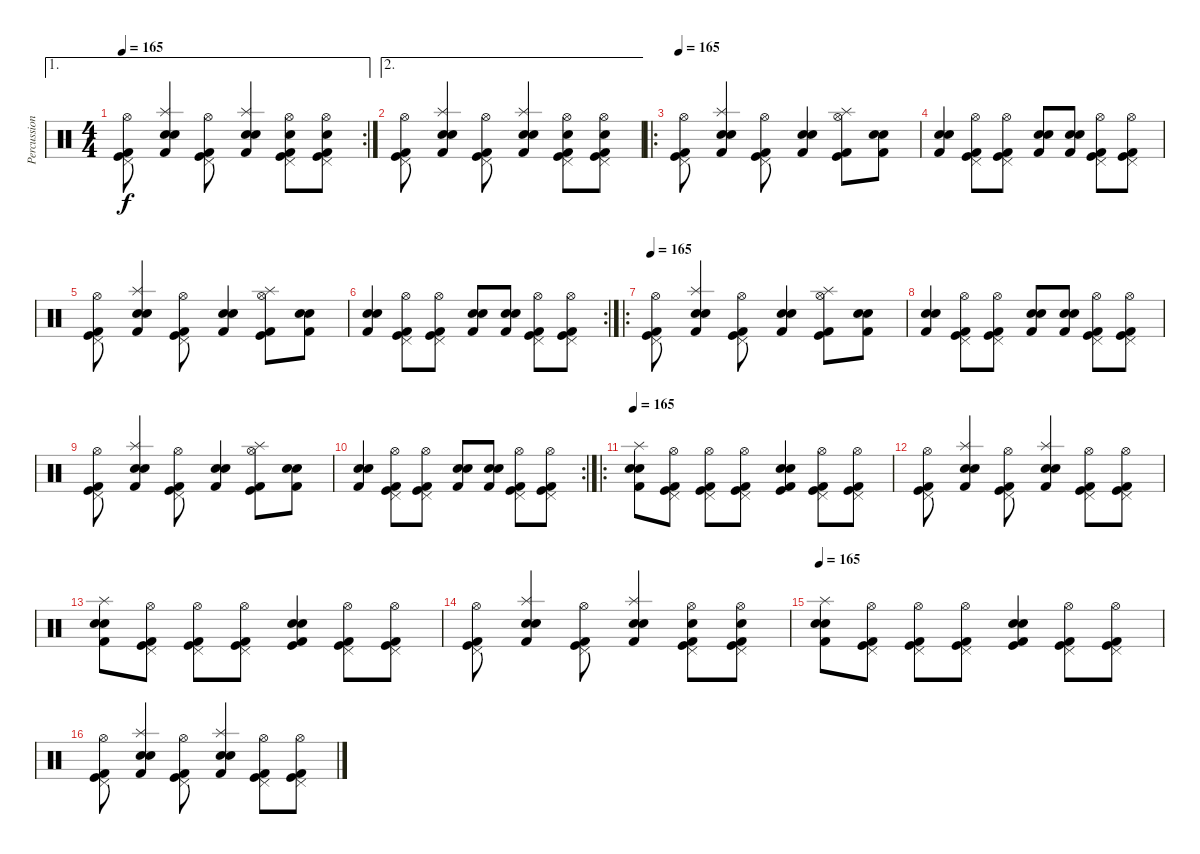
\track ("Percussions" "Percussion") {instrument percussion}
\staff {score}
\articulation defaults
\ae 1
\rc 2
\ts (4 4)
\tempo 165
\clef neutral
\ks c
("Hi-Hat (open)" "Pedal Hi-Hat (hit)" "Kick (hit) 2" "Kick (hit)").8{dy f} ("Kick (hit) 2" "Splash (hit)" "Snare (hit) 2" "Electric Snare (hit)").4 ("Hi-Hat (open)" "Pedal Hi-Hat (hit)" "Kick (hit) 2" "Kick (hit)").8 ("Kick (hit) 2" "Splash (hit)" "Snare (hit) 2" "Electric Snare (hit)").4 ("Hi-Hat (open)" "Pedal Hi-Hat (hit)" "Kick (hit) 2" "Kick (hit)" "Electric Snare (hit)").8 ("Hi-Hat (open)" "Pedal Hi-Hat (hit)" "Kick (hit) 2" "Kick (hit)" "Electric Snare (hit)").8 |
\ae 2
("Hi-Hat (open)" "Pedal Hi-Hat (hit)" "Kick (hit) 2" "Kick (hit)").8 ("Kick (hit) 2" "Splash (hit)" "Snare (hit) 2" "Electric Snare (hit)").4 ("Hi-Hat (open)" "Pedal Hi-Hat (hit)" "Kick (hit) 2" "Kick (hit)").8 ("Kick (hit) 2" "Splash (hit)" "Snare (hit) 2" "Electric Snare (hit)").4 ("Hi-Hat (open)" "Pedal Hi-Hat (hit)" "Kick (hit) 2" "Kick (hit)" "Electric Snare (hit)").8 ("Hi-Hat (open)" "Pedal Hi-Hat (hit)" "Kick (hit) 2" "Kick (hit)" "Electric Snare (hit)").8 |
\ro
\tempo 165
("Hi-Hat (open)" "Pedal Hi-Hat (hit)" "Kick (hit) 2" "Kick (hit)").8 ("Kick (hit) 2" "Splash (hit)" "Snare (hit) 2" "Electric Snare (hit)").4 ("Hi-Hat (open)" "Pedal Hi-Hat (hit)" "Kick (hit) 2" "Kick (hit)").8 ("Kick (hit) 2" "Snare (hit) 2" "Electric Snare (hit)").4 ("Hi-Hat (open)" "Splash (hit)" "Kick (hit) 2" "Kick (hit)").8 ("Kick (hit) 2" "Snare (hit) 2" "Electric Snare (hit)").8 |
("Kick (hit) 2" "Snare (hit) 2" "Electric Snare (hit)").4 ("Kick (hit)" "Hi-Hat (open)" "Pedal Hi-Hat (hit)" "Kick (hit) 2").8 ("Kick (hit)" "Hi-Hat (open)" "Pedal Hi-Hat (hit)" "Kick (hit) 2").8 ("Kick (hit) 2" "Snare (hit) 2" "Electric Snare (hit)").8 ("Kick (hit) 2" "Snare (hit) 2" "Electric Snare (hit)").8 ("Kick (hit)" "Hi-Hat (open)" "Pedal Hi-Hat (hit)" "Kick (hit) 2").8 ("Kick (hit)" "Hi-Hat (open)" "Pedal Hi-Hat (hit)" "Kick (hit) 2").8 |
("Hi-Hat (open)" "Pedal Hi-Hat (hit)" "Kick (hit) 2" "Kick (hit)").8 ("Kick (hit) 2" "Splash (hit)" "Snare (hit) 2" "Electric Snare (hit)").4 ("Hi-Hat (open)" "Pedal Hi-Hat (hit)" "Kick (hit) 2" "Kick (hit)").8 ("Kick (hit) 2" "Snare (hit) 2" "Electric Snare (hit)").4 ("Hi-Hat (open)" "Splash (hit)" "Kick (hit) 2" "Kick (hit)").8 ("Kick (hit) 2" "Snare (hit) 2" "Electric Snare (hit)").8 |
\rc 2
("Kick (hit) 2" "Snare (hit) 2" "Electric Snare (hit)").4 ("Kick (hit)" "Hi-Hat (open)" "Pedal Hi-Hat (hit)" "Kick (hit) 2").8 ("Kick (hit)" "Hi-Hat (open)" "Pedal Hi-Hat (hit)" "Kick (hit) 2").8 ("Kick (hit) 2" "Snare (hit) 2" "Electric Snare (hit)").8 ("Kick (hit) 2" "Snare (hit) 2" "Electric Snare (hit)").8 ("Kick (hit)" "Hi-Hat (open)" "Pedal Hi-Hat (hit)" "Kick (hit) 2").8 ("Kick (hit)" "Hi-Hat (open)" "Pedal Hi-Hat (hit)" "Kick (hit) 2").8 |
\ro
\tempo 165
("Hi-Hat (open)" "Pedal Hi-Hat (hit)" "Kick (hit) 2" "Kick (hit)").8 ("Kick (hit) 2" "Splash (hit)" "Snare (hit) 2" "Electric Snare (hit)").4 ("Hi-Hat (open)" "Pedal Hi-Hat (hit)" "Kick (hit) 2" "Kick (hit)").8 ("Kick (hit) 2" "Snare (hit) 2" "Electric Snare (hit)").4 ("Hi-Hat (open)" "Splash (hit)" "Kick (hit) 2" "Kick (hit)").8 ("Kick (hit) 2" "Snare (hit) 2" "Electric Snare (hit)").8 |
("Kick (hit) 2" "Snare (hit) 2" "Electric Snare (hit)").4 ("Kick (hit)" "Hi-Hat (open)" "Pedal Hi-Hat (hit)" "Kick (hit) 2").8 ("Kick (hit)" "Hi-Hat (open)" "Pedal Hi-Hat (hit)" "Kick (hit) 2").8 ("Kick (hit) 2" "Snare (hit) 2" "Electric Snare (hit)").8 ("Kick (hit) 2" "Snare (hit) 2" "Electric Snare (hit)").8 ("Kick (hit)" "Hi-Hat (open)" "Pedal Hi-Hat (hit)" "Kick (hit) 2").8 ("Kick (hit)" "Hi-Hat (open)" "Pedal Hi-Hat (hit)" "Kick (hit) 2").8 |
("Hi-Hat (open)" "Pedal Hi-Hat (hit)" "Kick (hit) 2" "Kick (hit)").8 ("Kick (hit) 2" "Splash (hit)" "Snare (hit) 2" "Electric Snare (hit)").4 ("Hi-Hat (open)" "Pedal Hi-Hat (hit)" "Kick (hit) 2" "Kick (hit)").8 ("Kick (hit) 2" "Snare (hit) 2" "Electric Snare (hit)").4 ("Hi-Hat (open)" "Splash (hit)" "Kick (hit) 2" "Kick (hit)").8 ("Kick (hit) 2" "Snare (hit) 2" "Electric Snare (hit)").8 |
\rc 2
("Kick (hit) 2" "Snare (hit) 2" "Electric Snare (hit)").4 ("Kick (hit)" "Hi-Hat (open)" "Pedal Hi-Hat (hit)" "Kick (hit) 2").8 ("Kick (hit)" "Hi-Hat (open)" "Pedal Hi-Hat (hit)" "Kick (hit) 2").8 ("Kick (hit) 2" "Snare (hit) 2" "Electric Snare (hit)").8 ("Kick (hit) 2" "Snare (hit) 2" "Electric Snare (hit)").8 ("Kick (hit)" "Hi-Hat (open)" "Pedal Hi-Hat (hit)" "Kick (hit) 2").8 ("Kick (hit)" "Hi-Hat (open)" "Pedal Hi-Hat (hit)" "Kick (hit) 2").8 |
\ro
\tempo 165
("Kick (hit) 2" "Splash (hit)" "Snare (hit) 2" "Electric Snare (hit)").8 ("Hi-Hat (open)" "Pedal Hi-Hat (hit)" "Kick (hit)" "Kick (hit) 2").8 ("Hi-Hat (open)" "Pedal Hi-Hat (hit)" "Kick (hit)" "Kick (hit) 2").8 ("Hi-Hat (open)" "Pedal Hi-Hat (hit)" "Kick (hit)" "Kick (hit) 2").8 ("Kick (hit)" "Electric Snare (hit)" "Snare (hit) 2" "Kick (hit) 2").4 ("Hi-Hat (open)" "Pedal Hi-Hat (hit)" "Kick (hit)" "Kick (hit) 2").8 ("Hi-Hat (open)" "Pedal Hi-Hat (hit)" "Kick (hit) 2" "Kick (hit)").8 |
("Hi-Hat (open)" "Pedal Hi-Hat (hit)" "Kick (hit) 2" "Kick (hit)").8 ("Kick (hit) 2" "Splash (hit)" "Snare (hit) 2" "Electric Snare (hit)").4 ("Hi-Hat (open)" "Pedal Hi-Hat (hit)" "Kick (hit) 2" "Kick (hit)").8 ("Kick (hit) 2" "Splash (hit)" "Snare (hit) 2" "Electric Snare (hit)").4 ("Hi-Hat (open)" "Pedal Hi-Hat (hit)" "Kick (hit) 2" "Kick (hit)").8 ("Hi-Hat (open)" "Pedal Hi-Hat (hit)" "Kick (hit) 2" "Kick (hit)").8 |
("Kick (hit) 2" "Splash (hit)" "Snare (hit) 2" "Electric Snare (hit)").8 ("Hi-Hat (open)" "Pedal Hi-Hat (hit)" "Kick (hit)" "Kick (hit) 2").8 ("Hi-Hat (open)" "Pedal Hi-Hat (hit)" "Kick (hit)" "Kick (hit) 2").8 ("Hi-Hat (open)" "Pedal Hi-Hat (hit)" "Kick (hit)" "Kick (hit) 2").8 ("Kick (hit)" "Electric Snare (hit)" "Snare (hit) 2" "Kick (hit) 2").4 ("Hi-Hat (open)" "Pedal Hi-Hat (hit)" "Kick (hit)" "Kick (hit) 2").8 ("Hi-Hat (open)" "Pedal Hi-Hat (hit)" "Kick (hit) 2" "Kick (hit)").8 |
("Hi-Hat (open)" "Pedal Hi-Hat (hit)" "Kick (hit) 2" "Kick (hit)").8 ("Kick (hit) 2" "Splash (hit)" "Snare (hit) 2" "Electric Snare (hit)").4 ("Hi-Hat (open)" "Pedal Hi-Hat (hit)" "Kick (hit) 2" "Kick (hit)").8 ("Kick (hit) 2" "Splash (hit)" "Snare (hit) 2" "Electric Snare (hit)").4 ("Hi-Hat (open)" "Pedal Hi-Hat (hit)" "Kick (hit) 2" "Kick (hit)" "Electric Snare (hit)").8 ("Hi-Hat (open)" "Pedal Hi-Hat (hit)" "Kick (hit) 2" "Kick (hit)" "Electric Snare (hit)").8 |
\tempo 165
("Kick (hit) 2" "Splash (hit)" "Snare (hit) 2" "Electric Snare (hit)").8 ("Hi-Hat (open)" "Pedal Hi-Hat (hit)" "Kick (hit)" "Kick (hit) 2").8 ("Hi-Hat (open)" "Pedal Hi-Hat (hit)" "Kick (hit)" "Kick (hit) 2").8 ("Hi-Hat (open)" "Pedal Hi-Hat (hit)" "Kick (hit)" "Kick (hit) 2").8 ("Kick (hit)" "Electric Snare (hit)" "Snare (hit) 2" "Kick (hit) 2").4 ("Hi-Hat (open)" "Pedal Hi-Hat (hit)" "Kick (hit)" "Kick (hit) 2").8 ("Hi-Hat (open)" "Pedal Hi-Hat (hit)" "Kick (hit) 2" "Kick (hit)").8 |
("Hi-Hat (open)" "Pedal Hi-Hat (hit)" "Kick (hit) 2" "Kick (hit)").8 ("Kick (hit) 2" "Splash (hit)" "Snare (hit) 2" "Electric Snare (hit)").4 ("Hi-Hat (open)" "Pedal Hi-Hat (hit)" "Kick (hit) 2" "Kick (hit)").8 ("Kick (hit) 2" "Splash (hit)" "Snare (hit) 2" "Electric Snare (hit)").4 ("Hi-Hat (open)" "Pedal Hi-Hat (hit)" "Kick (hit) 2" "Kick (hit)").8 ("Hi-Hat (open)" "Pedal Hi-Hat (hit)" "Kick (hit) 2" "Kick (hit)").8
